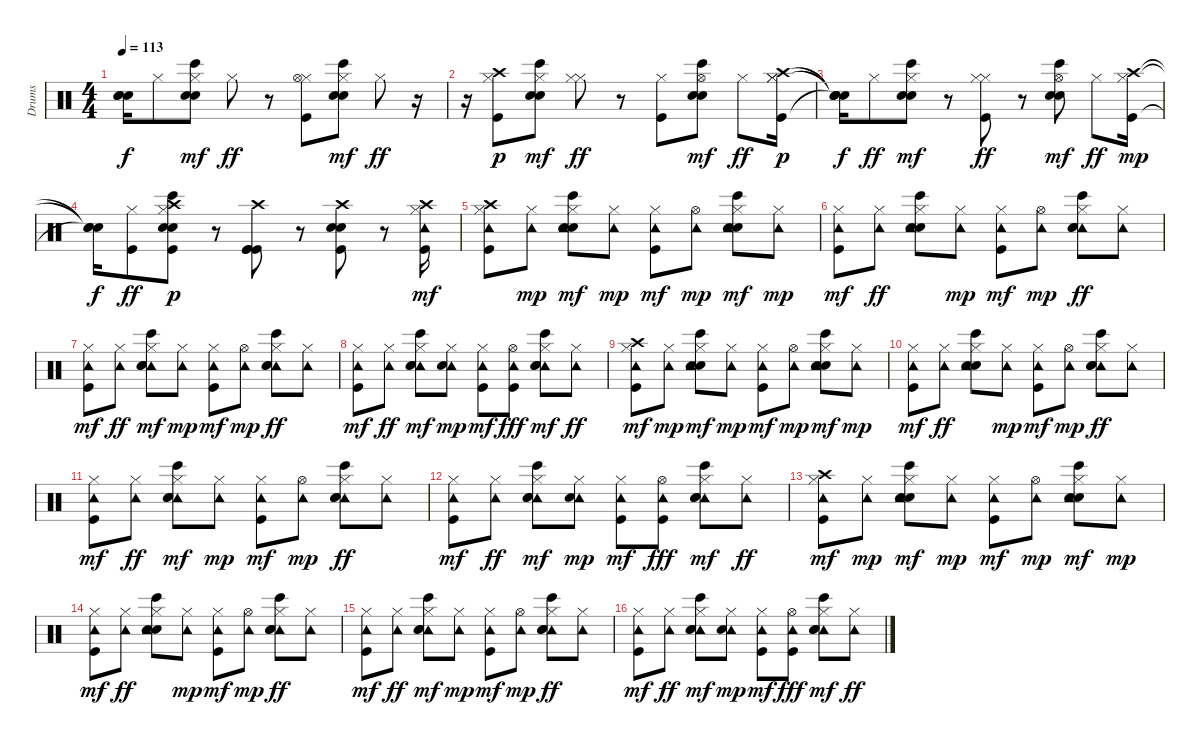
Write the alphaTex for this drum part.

\track ("Drums" "Drums") {instrument percussion}
\staff {score}
\articulation defaults
\ts (4 4)
\tempo 113
\clef neutral
\ks c
("Snare (hit)"{t} "Snare (hit)"{t} "Snare (hit)"{t}).16{dy f} "Hi-Hat (closed)".8 ("Hi-Hat (closed)" "Bongo High (hit)" "Snare (hit) 2" "Hand Clap (hit)").8{dy mf} "Hi-Hat (closed)".8{dy ff} r.8 ("Kick (hit)" "Hi-Hat (closed)" "Hi-Hat (open)").8 ("Hi-Hat (closed)" "Bongo High (hit)" "Snare (hit) 2" "Hand Clap (hit)").8{dy mf} "Hi-Hat (closed)".8{dy ff} r.16 |
r.16 ("Kick (hit)" "Hi-Hat (closed)" "Crash high (hit)").8{dy p} ("Hi-Hat (closed)" "Bongo High (hit)" "Snare (hit) 2" "Hand Clap (hit)").8{dy mf} ("Hi-Hat (closed)" "Hi-Hat (closed)").8{dy ff} r.8 ("Kick (hit)" "Hi-Hat (closed)").8 ("Hi-Hat (open)" "Bongo High (hit)" "Snare (hit) 2" "Hand Clap (hit)").8{dy mf} "Hi-Hat (closed)".8{dy ff} ("Hi-Hat (closed)" "Kick (hit)" "Hi-Hat (closed)" "Crash high (hit)").16{dy p} |
("Snare (hit)"{t} "Snare (hit)"{t} "Snare (hit)"{t} "Snare (hit)"{t}).16{dy f} "Hi-Hat (closed)".8{dy ff} ("Hi-Hat (closed)" "Bongo High (hit)" "Snare (hit) 2" "Hand Clap (hit)").8{dy mf} r.8 ("Hi-Hat (closed)" "Kick (hit)" "Hi-Hat (closed)").8{dy ff} r.8 ("Hi-Hat (open)" "Bongo High (hit)" "Snare (hit) 2" "Hand Clap (hit)").8{dy mf} "Hi-Hat (closed)".8{dy ff} ("Hi-Hat (closed)" "Kick (hit)" "Crash high (hit)").16{dy mp} |
("Snare (hit)"{t} "Snare (hit)"{t} "Snare (hit)"{t}).16{dy f} ("Hi-Hat (closed)" "Kick (hit)").8{dy ff} ("Kick (hit)" "Hi-Hat (closed)" "Bongo High (hit)" "Snare (hit) 2" "Hand Clap (hit)" "Crash high (hit)").8{dy p} r.8 ("Kick (hit)" "Kick (hit)" "Kick (hit)" "Crash high (hit)").8 r.8 ("Kick (hit)" "Snare (hit) 2" "Hand Clap (hit)" "Crash high (hit)").8 r.8 ("Kick (hit)" "Hi-Hat (closed)" "Crash high (hit)" "Tambourine (hit)").16{dy mf} |
("Kick (hit)" "Hi-Hat (closed)" "Crash high (hit)" "Tambourine (hit)").8 ("Tambourine (hit)" "Hi-Hat (closed)").8{dy mp} ("Hi-Hat (closed)" "Bongo High (hit)" "Snare (hit) 2" "Hand Clap (hit)" "Tambourine (hit)").8{dy mf} ("Hi-Hat (closed)" "Tambourine (hit)").8{dy mp} ("Kick (hit)" "Hi-Hat (closed)" "Tambourine (hit)").8{dy mf} ("Tambourine (hit)" "Hi-Hat (open)").8{dy mp} ("Hi-Hat (closed)" "Bongo High (hit)" "Snare (hit) 2" "Hand Clap (hit)" "Tambourine (hit)").8{dy mf} ("Hi-Hat (closed)" "Tambourine (hit)").8{dy mp} |
("Kick (hit)" "Hi-Hat (closed)" "Tambourine (hit)").8{dy mf} ("Tambourine (hit)" "Hi-Hat (closed)").8{dy ff} ("Bongo High (hit)" "Snare (hit) 2" "Hand Clap (hit)" "Tambourine (hit)" "Hi-Hat (closed)").8 ("Hi-Hat (closed)" "Tambourine (hit)").8{dy mp} ("Kick (hit)" "Hi-Hat (closed)" "Tambourine (hit)").8{dy mf} ("Tambourine (hit)" "Hi-Hat (open)").8{dy mp} ("Tambourine (hit)" "Bongo High (hit)" "Snare (hit) 2" "Hand Clap (hit)" "Hi-Hat (closed)").8{dy ff} ("Tambourine (hit)" "Hi-Hat (closed)").8 |
("Kick (hit)" "Hi-Hat (closed)" "Tambourine (hit)").8{dy mf} ("Tambourine (hit)" "Hi-Hat (closed)").8{dy ff} ("Tambourine (hit)" "Hi-Hat (closed)" "Bongo High (hit)" "Snare (hit) 2" "Hand Clap (hit)").8{dy mf} ("Hi-Hat (closed)" "Tambourine (hit)").8{dy mp} ("Kick (hit)" "Hi-Hat (closed)" "Tambourine (hit)").8{dy mf} ("Tambourine (hit)" "Hi-Hat (open)").8{dy mp} ("Tambourine (hit)" "Bongo High (hit)" "Snare (hit) 2" "Hand Clap (hit)" "Hi-Hat (closed)").8{dy ff} ("Tambourine (hit)" "Hi-Hat (closed)").8 |
("Kick (hit)" "Hi-Hat (closed)" "Tambourine (hit)").8{dy mf} ("Tambourine (hit)" "Hi-Hat (closed)").8{dy ff} ("Hi-Hat (closed)" "Tambourine (hit)" "Bongo High (hit)" "Snare (hit) 2" "Hand Clap (hit)").8{dy mf} ("Hi-Hat (closed)" "Tambourine (hit)" "Snare (hit) 2").8{dy mp} ("Kick (hit)" "Hi-Hat (closed)" "Tambourine (hit)").8{dy mf} ("Hi-Hat (open)" "Tambourine (hit)" "Kick (hit)").8{dy fff} ("Hi-Hat (closed)" "Tambourine (hit)" "Bongo High (hit)" "Snare (hit) 2" "Hand Clap (hit)").8{dy mf} ("Tambourine (hit)" "Hi-Hat (closed)").8{dy ff} |
("Kick (hit)" "Hi-Hat (closed)" "Crash high (hit)" "Tambourine (hit)").8{dy mf} ("Tambourine (hit)" "Hi-Hat (closed)").8{dy mp} ("Hi-Hat (closed)" "Bongo High (hit)" "Snare (hit) 2" "Hand Clap (hit)" "Tambourine (hit)").8{dy mf} ("Hi-Hat (closed)" "Tambourine (hit)").8{dy mp} ("Kick (hit)" "Hi-Hat (closed)" "Tambourine (hit)").8{dy mf} ("Tambourine (hit)" "Hi-Hat (open)").8{dy mp} ("Hi-Hat (closed)" "Bongo High (hit)" "Snare (hit) 2" "Hand Clap (hit)" "Tambourine (hit)").8{dy mf} ("Hi-Hat (closed)" "Tambourine (hit)").8{dy mp} |
("Kick (hit)" "Hi-Hat (closed)" "Tambourine (hit)").8{dy mf} ("Tambourine (hit)" "Hi-Hat (closed)").8{dy ff} ("Bongo High (hit)" "Snare (hit) 2" "Hand Clap (hit)" "Tambourine (hit)" "Hi-Hat (closed)").8 ("Hi-Hat (closed)" "Tambourine (hit)").8{dy mp} ("Kick (hit)" "Hi-Hat (closed)" "Tambourine (hit)").8{dy mf} ("Tambourine (hit)" "Hi-Hat (open)").8{dy mp} ("Tambourine (hit)" "Bongo High (hit)" "Snare (hit) 2" "Hand Clap (hit)" "Hi-Hat (closed)").8{dy ff} ("Tambourine (hit)" "Hi-Hat (closed)").8 |
("Kick (hit)" "Hi-Hat (closed)" "Tambourine (hit)").8{dy mf} ("Tambourine (hit)" "Hi-Hat (closed)").8{dy ff} ("Tambourine (hit)" "Hi-Hat (closed)" "Bongo High (hit)" "Snare (hit) 2" "Hand Clap (hit)").8{dy mf} ("Hi-Hat (closed)" "Tambourine (hit)").8{dy mp} ("Kick (hit)" "Hi-Hat (closed)" "Tambourine (hit)").8{dy mf} ("Tambourine (hit)" "Hi-Hat (open)").8{dy mp} ("Tambourine (hit)" "Bongo High (hit)" "Snare (hit) 2" "Hand Clap (hit)" "Hi-Hat (closed)").8{dy ff} ("Tambourine (hit)" "Hi-Hat (closed)").8 |
("Kick (hit)" "Hi-Hat (closed)" "Tambourine (hit)").8{dy mf} ("Tambourine (hit)" "Hi-Hat (closed)").8{dy ff} ("Hi-Hat (closed)" "Tambourine (hit)" "Bongo High (hit)" "Snare (hit) 2" "Hand Clap (hit)").8{dy mf} ("Hi-Hat (closed)" "Tambourine (hit)" "Snare (hit) 2").8{dy mp} ("Kick (hit)" "Hi-Hat (closed)" "Tambourine (hit)").8{dy mf} ("Hi-Hat (open)" "Tambourine (hit)" "Kick (hit)").8{dy fff} ("Hi-Hat (closed)" "Tambourine (hit)" "Bongo High (hit)" "Snare (hit) 2" "Hand Clap (hit)").8{dy mf} ("Tambourine (hit)" "Hi-Hat (closed)").8{dy ff} |
("Kick (hit)" "Hi-Hat (closed)" "Crash high (hit)" "Tambourine (hit)").8{dy mf} ("Tambourine (hit)" "Hi-Hat (closed)").8{dy mp} ("Hi-Hat (closed)" "Bongo High (hit)" "Snare (hit) 2" "Hand Clap (hit)" "Tambourine (hit)").8{dy mf} ("Hi-Hat (closed)" "Tambourine (hit)").8{dy mp} ("Kick (hit)" "Hi-Hat (closed)" "Tambourine (hit)").8{dy mf} ("Tambourine (hit)" "Hi-Hat (open)").8{dy mp} ("Hi-Hat (closed)" "Bongo High (hit)" "Snare (hit) 2" "Hand Clap (hit)" "Tambourine (hit)").8{dy mf} ("Hi-Hat (closed)" "Tambourine (hit)").8{dy mp} |
("Kick (hit)" "Hi-Hat (closed)" "Tambourine (hit)").8{dy mf} ("Tambourine (hit)" "Hi-Hat (closed)").8{dy ff} ("Bongo High (hit)" "Snare (hit) 2" "Hand Clap (hit)" "Tambourine (hit)" "Hi-Hat (closed)").8 ("Hi-Hat (closed)" "Tambourine (hit)").8{dy mp} ("Kick (hit)" "Hi-Hat (closed)" "Tambourine (hit)").8{dy mf} ("Tambourine (hit)" "Hi-Hat (open)").8{dy mp} ("Tambourine (hit)" "Bongo High (hit)" "Snare (hit) 2" "Hand Clap (hit)" "Hi-Hat (closed)").8{dy ff} ("Tambourine (hit)" "Hi-Hat (closed)").8 |
("Kick (hit)" "Hi-Hat (closed)" "Tambourine (hit)").8{dy mf} ("Tambourine (hit)" "Hi-Hat (closed)").8{dy ff} ("Tambourine (hit)" "Hi-Hat (closed)" "Bongo High (hit)" "Snare (hit) 2" "Hand Clap (hit)").8{dy mf} ("Hi-Hat (closed)" "Tambourine (hit)").8{dy mp} ("Kick (hit)" "Hi-Hat (closed)" "Tambourine (hit)").8{dy mf} ("Tambourine (hit)" "Hi-Hat (open)").8{dy mp} ("Tambourine (hit)" "Bongo High (hit)" "Snare (hit) 2" "Hand Clap (hit)" "Hi-Hat (closed)").8{dy ff} ("Tambourine (hit)" "Hi-Hat (closed)").8 |
("Kick (hit)" "Hi-Hat (closed)" "Tambourine (hit)").8{dy mf} ("Tambourine (hit)" "Hi-Hat (closed)").8{dy ff} ("Hi-Hat (closed)" "Tambourine (hit)" "Bongo High (hit)" "Snare (hit) 2" "Hand Clap (hit)").8{dy mf} ("Hi-Hat (closed)" "Tambourine (hit)" "Snare (hit) 2").8{dy mp} ("Kick (hit)" "Hi-Hat (closed)" "Tambourine (hit)").8{dy mf} ("Hi-Hat (open)" "Tambourine (hit)" "Kick (hit)").8{dy fff} ("Hi-Hat (closed)" "Tambourine (hit)" "Bongo High (hit)" "Snare (hit) 2" "Hand Clap (hit)").8{dy mf} ("Tambourine (hit)" "Hi-Hat (closed)").8{dy ff}
